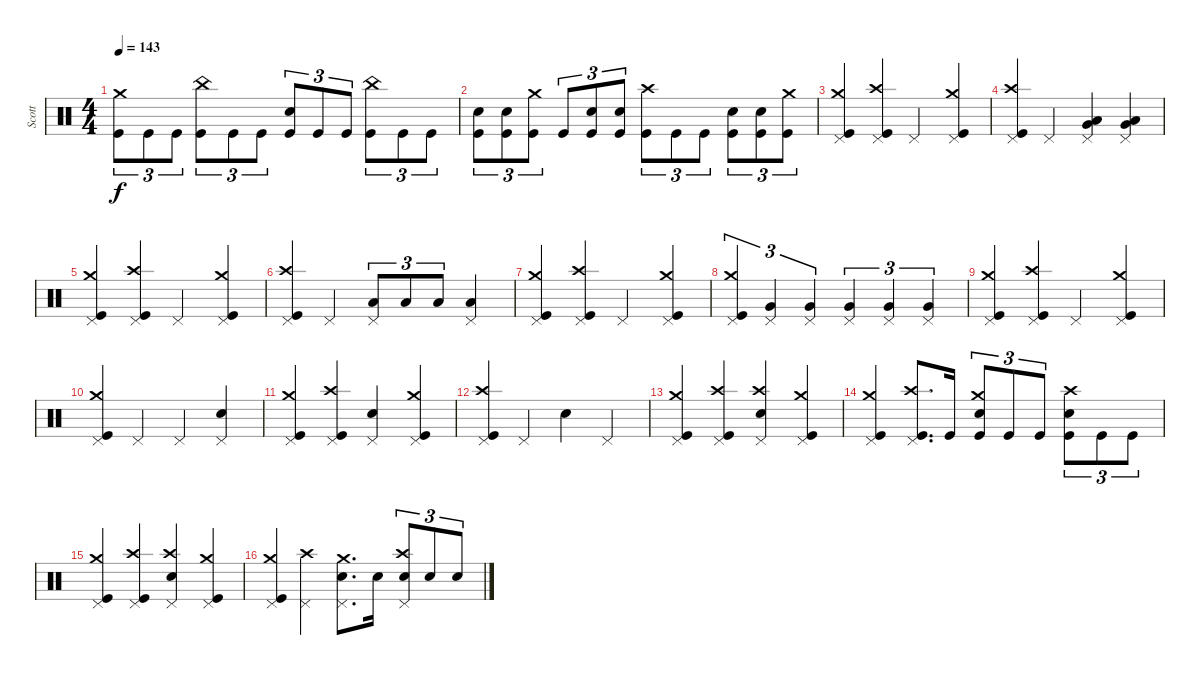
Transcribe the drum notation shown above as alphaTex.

\track ("Scott" "Scott") {instrument percussion}
\staff {score}
\articulation defaults
\ts (4 4)
\tempo 143
\clef neutral
\ks c
("Kick (hit)" "Crash medium (hit)").8{tu (3 2) dy f} "Kick (hit)".8{tu (3 2)} "Kick (hit)".8{tu (3 2)} ("Kick (hit)" "China (hit)").8{tu (3 2)} "Kick (hit)".8{tu (3 2)} "Kick (hit)".8{tu (3 2)} ("Kick (hit)" "Snare (hit) 2").8{tu (3 2)} "Kick (hit)".8{tu (3 2)} "Kick (hit)".8{tu (3 2)} ("Kick (hit)" "China (hit)").8{tu (3 2)} "Kick (hit)".8{tu (3 2)} "Kick (hit)".8{tu (3 2)} |
("Kick (hit)" "Snare (hit) 2").8{tu (3 2)} ("Kick (hit)" "Snare (hit) 2").8{tu (3 2)} ("Kick (hit)" "Crash medium (hit)").8{tu (3 2)} "Kick (hit)".8{tu (3 2)} ("Kick (hit)" "Snare (hit) 2").8{tu (3 2)} ("Kick (hit)" "Snare (hit) 2").8{tu (3 2)} ("Kick (hit)" "Crash high (hit)").8{tu (3 2)} "Kick (hit)".8{tu (3 2)} "Kick (hit)".8{tu (3 2)} ("Kick (hit)" "Snare (hit) 2").8{tu (3 2)} ("Kick (hit)" "Snare (hit) 2").8{tu (3 2)} ("Kick (hit)" "Crash medium (hit)").8{tu (3 2)} |
("Kick (hit)" "Pedal Hi-Hat (hit)" "Crash medium (hit)").4 ("Kick (hit)" "Pedal Hi-Hat (hit)" "Crash high (hit)").4 "Pedal Hi-Hat (hit)".4 ("Kick (hit)" "Pedal Hi-Hat (hit)" "Crash medium (hit)").4 |
("Kick (hit)" "Pedal Hi-Hat (hit)" "Crash high (hit)").4 "Pedal Hi-Hat (hit)".4 ("Pedal Hi-Hat (hit)" "Low Tom (hit)" "Very Low Tom (hit)").4 ("Pedal Hi-Hat (hit)" "Low Tom (hit)" "Very Low Tom (hit)").4 |
("Kick (hit)" "Pedal Hi-Hat (hit)" "Crash medium (hit)").4 ("Kick (hit)" "Pedal Hi-Hat (hit)" "Crash high (hit)").4 "Pedal Hi-Hat (hit)".4 ("Kick (hit)" "Pedal Hi-Hat (hit)" "Crash medium (hit)").4 |
("Kick (hit)" "Pedal Hi-Hat (hit)" "Crash high (hit)").4 "Pedal Hi-Hat (hit)".4 ("Low Tom (hit)" "Pedal Hi-Hat (hit)").8{tu (3 2)} "Low Tom (hit)".8{tu (3 2)} "Low Tom (hit)".8{tu (3 2)} ("Low Tom (hit)" "Pedal Hi-Hat (hit)").4 |
("Kick (hit)" "Pedal Hi-Hat (hit)" "Crash medium (hit)").4 ("Kick (hit)" "Pedal Hi-Hat (hit)" "Crash high (hit)").4 "Pedal Hi-Hat (hit)".4 ("Kick (hit)" "Pedal Hi-Hat (hit)" "Crash medium (hit)").4 |
("Kick (hit)" "Pedal Hi-Hat (hit)" "Crash medium (hit)").4{tu (3 2)} ("Pedal Hi-Hat (hit)" "Very Low Tom (hit)").4{tu (3 2)} ("Pedal Hi-Hat (hit)" "Very Low Tom (hit)").4{tu (3 2)} ("Very Low Tom (hit)" "Pedal Hi-Hat (hit)").4{tu (3 2)} ("Very Low Tom (hit)" "Pedal Hi-Hat (hit)").4{tu (3 2)} ("Very Low Tom (hit)" "Pedal Hi-Hat (hit)").4{tu (3 2)} |
("Kick (hit)" "Pedal Hi-Hat (hit)" "Crash medium (hit)").4 ("Kick (hit)" "Pedal Hi-Hat (hit)" "Crash high (hit)").4 "Pedal Hi-Hat (hit)".4 ("Kick (hit)" "Pedal Hi-Hat (hit)" "Crash medium (hit)").4 |
("Kick (hit)" "Pedal Hi-Hat (hit)" "Crash medium (hit)").4 "Pedal Hi-Hat (hit)".4 "Pedal Hi-Hat (hit)".4 ("Snare (hit) 2" "Pedal Hi-Hat (hit)").4 |
("Kick (hit)" "Pedal Hi-Hat (hit)" "Crash medium (hit)").4 ("Kick (hit)" "Pedal Hi-Hat (hit)" "Crash high (hit)").4 ("Snare (hit) 2" "Pedal Hi-Hat (hit)").4 ("Kick (hit)" "Pedal Hi-Hat (hit)" "Crash medium (hit)").4 |
("Kick (hit)" "Pedal Hi-Hat (hit)" "Crash high (hit)").4 "Pedal Hi-Hat (hit)".4 "Snare (hit) 2".4 "Pedal Hi-Hat (hit)".4 |
("Kick (hit)" "Pedal Hi-Hat (hit)" "Crash medium (hit)").4 ("Kick (hit)" "Pedal Hi-Hat (hit)" "Crash high (hit)").4 ("Snare (hit) 2" "Pedal Hi-Hat (hit)" "Crash high (hit)").4 ("Kick (hit)" "Pedal Hi-Hat (hit)" "Crash medium (hit)").4 |
("Kick (hit)" "Pedal Hi-Hat (hit)" "Crash medium (hit)").4 ("Kick (hit)" "Pedal Hi-Hat (hit)" "Crash high (hit)").8{d} "Kick (hit)".16 ("Kick (hit)" "Snare (hit) 2" "Crash medium (hit)").8{tu (3 2)} "Kick (hit)".8{tu (3 2)} "Kick (hit)".8{tu (3 2)} ("Kick (hit)" "Snare (hit) 2" "Crash high (hit)").8{tu (3 2)} "Kick (hit)".8{tu (3 2)} "Kick (hit)".8{tu (3 2)} |
("Kick (hit)" "Pedal Hi-Hat (hit)" "Crash medium (hit)").4 ("Kick (hit)" "Pedal Hi-Hat (hit)" "Crash high (hit)").4 ("Snare (hit) 2" "Pedal Hi-Hat (hit)" "Crash high (hit)").4 ("Kick (hit)" "Pedal Hi-Hat (hit)" "Crash medium (hit)").4 |
("Kick (hit)" "Pedal Hi-Hat (hit)" "Crash medium (hit)").4 ("Pedal Hi-Hat (hit)" "Crash high (hit)").4 ("Snare (hit) 2" "Pedal Hi-Hat (hit)" "Crash medium (hit)").8{d} "Snare (hit) 2".16 ("Snare (hit) 2" "Pedal Hi-Hat (hit)" "Crash high (hit)").8{tu (3 2)} "Snare (hit) 2".8{tu (3 2)} "Snare (hit) 2".8{tu (3 2)}
